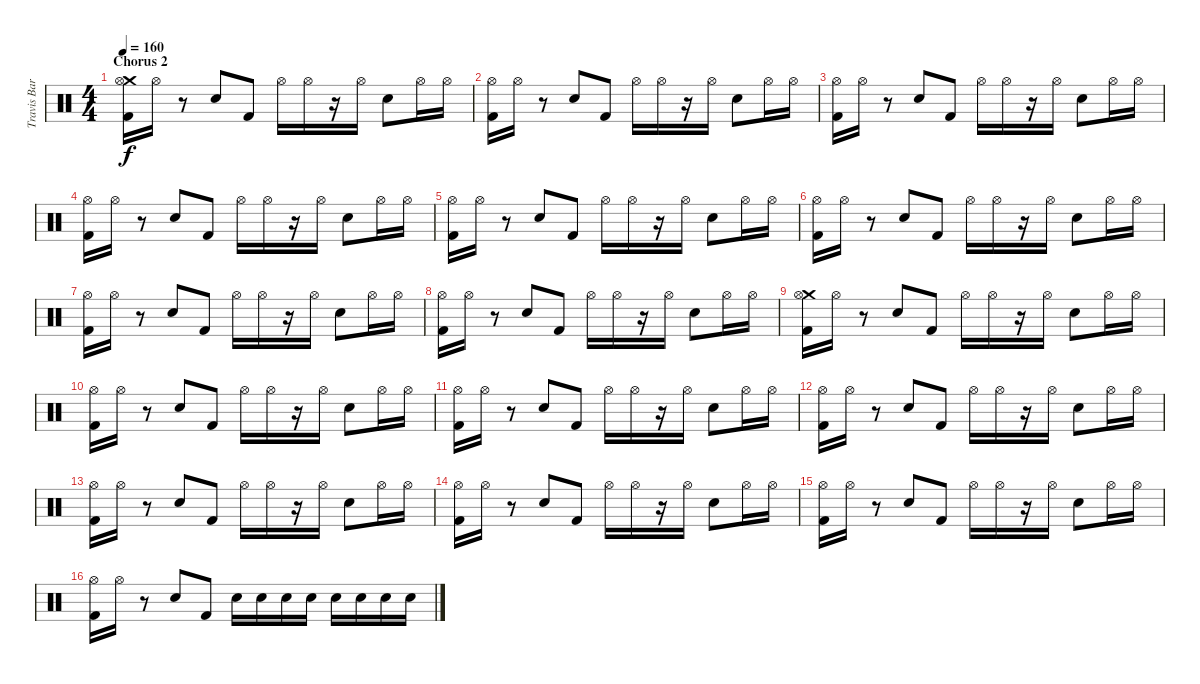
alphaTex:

\track ("Travis Barker Drums" "Travis Bar") {instrument percussion}
\staff {score}
\articulation defaults
\ts (4 4)
\section ("" "Chorus 2")
\tempo 160
\clef neutral
\ks c
("Crash medium (hit)" "Hi-Hat (open)" "Kick (hit) 2").16{dy f} "Hi-Hat (open)".16 r.8 "Electric Snare (hit)".8 "Kick (hit) 2".8 "Hi-Hat (open)".16 "Hi-Hat (open)".16 r.16 "Hi-Hat (open)".16 "Electric Snare (hit)".8 "Hi-Hat (open)".16 "Hi-Hat (open)".16 |
("Hi-Hat (open)" "Kick (hit) 2").16 "Hi-Hat (open)".16 r.8 "Electric Snare (hit)".8 "Kick (hit) 2".8 "Hi-Hat (open)".16 "Hi-Hat (open)".16 r.16 "Hi-Hat (open)".16 "Electric Snare (hit)".8 "Hi-Hat (open)".16 "Hi-Hat (open)".16 |
("Hi-Hat (open)" "Kick (hit) 2").16 "Hi-Hat (open)".16 r.8 "Electric Snare (hit)".8 "Kick (hit) 2".8 "Hi-Hat (open)".16 "Hi-Hat (open)".16 r.16 "Hi-Hat (open)".16 "Electric Snare (hit)".8 "Hi-Hat (open)".16 "Hi-Hat (open)".16 |
("Hi-Hat (open)" "Kick (hit) 2").16 "Hi-Hat (open)".16 r.8 "Electric Snare (hit)".8 "Kick (hit) 2".8 "Hi-Hat (open)".16 "Hi-Hat (open)".16 r.16 "Hi-Hat (open)".16 "Electric Snare (hit)".8 "Hi-Hat (open)".16 "Hi-Hat (open)".16 |
("Hi-Hat (open)" "Kick (hit) 2").16 "Hi-Hat (open)".16 r.8 "Electric Snare (hit)".8 "Kick (hit) 2".8 "Hi-Hat (open)".16 "Hi-Hat (open)".16 r.16 "Hi-Hat (open)".16 "Electric Snare (hit)".8 "Hi-Hat (open)".16 "Hi-Hat (open)".16 |
("Hi-Hat (open)" "Kick (hit) 2").16 "Hi-Hat (open)".16 r.8 "Electric Snare (hit)".8 "Kick (hit) 2".8 "Hi-Hat (open)".16 "Hi-Hat (open)".16 r.16 "Hi-Hat (open)".16 "Electric Snare (hit)".8 "Hi-Hat (open)".16 "Hi-Hat (open)".16 |
("Hi-Hat (open)" "Kick (hit) 2").16 "Hi-Hat (open)".16 r.8 "Electric Snare (hit)".8 "Kick (hit) 2".8 "Hi-Hat (open)".16 "Hi-Hat (open)".16 r.16 "Hi-Hat (open)".16 "Electric Snare (hit)".8 "Hi-Hat (open)".16 "Hi-Hat (open)".16 |
("Hi-Hat (open)" "Kick (hit) 2").16 "Hi-Hat (open)".16 r.8 "Electric Snare (hit)".8 "Kick (hit) 2".8 "Hi-Hat (open)".16 "Hi-Hat (open)".16 r.16 "Hi-Hat (open)".16 "Electric Snare (hit)".8 "Hi-Hat (open)".16 "Hi-Hat (open)".16 |
("Crash medium (hit)" "Hi-Hat (open)" "Kick (hit) 2").16 "Hi-Hat (open)".16 r.8 "Electric Snare (hit)".8 "Kick (hit) 2".8 "Hi-Hat (open)".16 "Hi-Hat (open)".16 r.16 "Hi-Hat (open)".16 "Electric Snare (hit)".8 "Hi-Hat (open)".16 "Hi-Hat (open)".16 |
("Hi-Hat (open)" "Kick (hit) 2").16 "Hi-Hat (open)".16 r.8 "Electric Snare (hit)".8 "Kick (hit) 2".8 "Hi-Hat (open)".16 "Hi-Hat (open)".16 r.16 "Hi-Hat (open)".16 "Electric Snare (hit)".8 "Hi-Hat (open)".16 "Hi-Hat (open)".16 |
("Hi-Hat (open)" "Kick (hit) 2").16 "Hi-Hat (open)".16 r.8 "Electric Snare (hit)".8 "Kick (hit) 2".8 "Hi-Hat (open)".16 "Hi-Hat (open)".16 r.16 "Hi-Hat (open)".16 "Electric Snare (hit)".8 "Hi-Hat (open)".16 "Hi-Hat (open)".16 |
("Hi-Hat (open)" "Kick (hit) 2").16 "Hi-Hat (open)".16 r.8 "Electric Snare (hit)".8 "Kick (hit) 2".8 "Hi-Hat (open)".16 "Hi-Hat (open)".16 r.16 "Hi-Hat (open)".16 "Electric Snare (hit)".8 "Hi-Hat (open)".16 "Hi-Hat (open)".16 |
("Hi-Hat (open)" "Kick (hit) 2").16 "Hi-Hat (open)".16 r.8 "Electric Snare (hit)".8 "Kick (hit) 2".8 "Hi-Hat (open)".16 "Hi-Hat (open)".16 r.16 "Hi-Hat (open)".16 "Electric Snare (hit)".8 "Hi-Hat (open)".16 "Hi-Hat (open)".16 |
("Hi-Hat (open)" "Kick (hit) 2").16 "Hi-Hat (open)".16 r.8 "Electric Snare (hit)".8 "Kick (hit) 2".8 "Hi-Hat (open)".16 "Hi-Hat (open)".16 r.16 "Hi-Hat (open)".16 "Electric Snare (hit)".8 "Hi-Hat (open)".16 "Hi-Hat (open)".16 |
("Hi-Hat (open)" "Kick (hit) 2").16 "Hi-Hat (open)".16 r.8 "Electric Snare (hit)".8 "Kick (hit) 2".8 "Hi-Hat (open)".16 "Hi-Hat (open)".16 r.16 "Hi-Hat (open)".16 "Electric Snare (hit)".8 "Hi-Hat (open)".16 "Hi-Hat (open)".16 |
("Hi-Hat (open)" "Kick (hit) 2").16 "Hi-Hat (open)".16 r.8 "Electric Snare (hit)".8 "Kick (hit) 2".8 "Electric Snare (hit)".16 "Electric Snare (hit)".16 "Electric Snare (hit)".16 "Electric Snare (hit)".16 "Electric Snare (hit)".16 "Electric Snare (hit)".16 "Electric Snare (hit)".16 "Electric Snare (hit)".16
